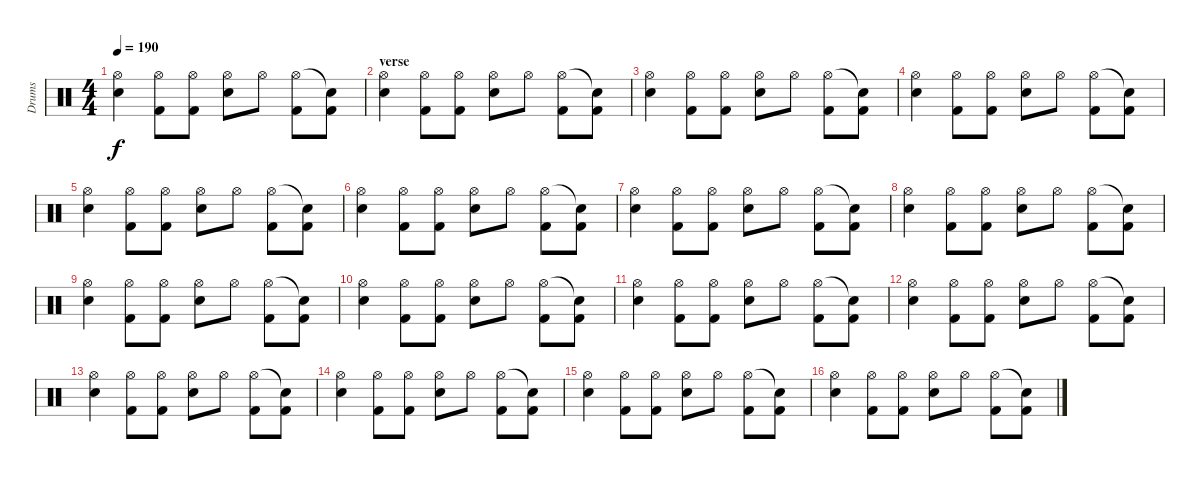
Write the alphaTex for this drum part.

\track ("Drums" "Drums") {instrument percussion}
\staff {score}
\articulation defaults
\ts (4 4)
\tempo 190
\clef neutral
\ks c
("Electric Snare (hit)" "Hi-Hat (open)").4{dy f} ("Hi-Hat (open)" "Kick (hit) 2").8 ("Hi-Hat (open)" "Kick (hit) 2").8 ("Hi-Hat (open)" "Electric Snare (hit)").8 "Hi-Hat (open)".8 ("Kick (hit) 2" "Hi-Hat (open)").8 ("Kick (hit) 2" "Snare (hit)"{t}).8 |
\section ("" "verse")
("Electric Snare (hit)" "Hi-Hat (open)").4 ("Hi-Hat (open)" "Kick (hit) 2").8 ("Hi-Hat (open)" "Kick (hit) 2").8 ("Hi-Hat (open)" "Electric Snare (hit)").8 "Hi-Hat (open)".8 ("Kick (hit) 2" "Hi-Hat (open)").8 ("Kick (hit) 2" "Snare (hit)"{t}).8 |
("Electric Snare (hit)" "Hi-Hat (open)").4 ("Hi-Hat (open)" "Kick (hit) 2").8 ("Hi-Hat (open)" "Kick (hit) 2").8 ("Hi-Hat (open)" "Electric Snare (hit)").8 "Hi-Hat (open)".8 ("Kick (hit) 2" "Hi-Hat (open)").8 ("Kick (hit) 2" "Snare (hit)"{t}).8 |
("Electric Snare (hit)" "Hi-Hat (open)").4 ("Hi-Hat (open)" "Kick (hit) 2").8 ("Hi-Hat (open)" "Kick (hit) 2").8 ("Hi-Hat (open)" "Electric Snare (hit)").8 "Hi-Hat (open)".8 ("Kick (hit) 2" "Hi-Hat (open)").8 ("Kick (hit) 2" "Snare (hit)"{t}).8 |
("Electric Snare (hit)" "Hi-Hat (open)").4 ("Hi-Hat (open)" "Kick (hit) 2").8 ("Hi-Hat (open)" "Kick (hit) 2").8 ("Hi-Hat (open)" "Electric Snare (hit)").8 "Hi-Hat (open)".8 ("Kick (hit) 2" "Hi-Hat (open)").8 ("Kick (hit) 2" "Snare (hit)"{t}).8 |
("Electric Snare (hit)" "Hi-Hat (open)").4 ("Hi-Hat (open)" "Kick (hit) 2").8 ("Hi-Hat (open)" "Kick (hit) 2").8 ("Hi-Hat (open)" "Electric Snare (hit)").8 "Hi-Hat (open)".8 ("Kick (hit) 2" "Hi-Hat (open)").8 ("Kick (hit) 2" "Snare (hit)"{t}).8 |
("Electric Snare (hit)" "Hi-Hat (open)").4 ("Hi-Hat (open)" "Kick (hit) 2").8 ("Hi-Hat (open)" "Kick (hit) 2").8 ("Hi-Hat (open)" "Electric Snare (hit)").8 "Hi-Hat (open)".8 ("Kick (hit) 2" "Hi-Hat (open)").8 ("Kick (hit) 2" "Snare (hit)"{t}).8 |
("Electric Snare (hit)" "Hi-Hat (open)").4 ("Hi-Hat (open)" "Kick (hit) 2").8 ("Hi-Hat (open)" "Kick (hit) 2").8 ("Hi-Hat (open)" "Electric Snare (hit)").8 "Hi-Hat (open)".8 ("Kick (hit) 2" "Hi-Hat (open)").8 ("Kick (hit) 2" "Snare (hit)"{t}).8 |
("Electric Snare (hit)" "Hi-Hat (open)").4 ("Hi-Hat (open)" "Kick (hit) 2").8 ("Hi-Hat (open)" "Kick (hit) 2").8 ("Hi-Hat (open)" "Electric Snare (hit)").8 "Hi-Hat (open)".8 ("Kick (hit) 2" "Hi-Hat (open)").8 ("Kick (hit) 2" "Snare (hit)"{t}).8 |
("Electric Snare (hit)" "Hi-Hat (open)").4 ("Hi-Hat (open)" "Kick (hit) 2").8 ("Hi-Hat (open)" "Kick (hit) 2").8 ("Hi-Hat (open)" "Electric Snare (hit)").8 "Hi-Hat (open)".8 ("Kick (hit) 2" "Hi-Hat (open)").8 ("Kick (hit) 2" "Snare (hit)"{t}).8 |
("Electric Snare (hit)" "Hi-Hat (open)").4 ("Hi-Hat (open)" "Kick (hit) 2").8 ("Hi-Hat (open)" "Kick (hit) 2").8 ("Hi-Hat (open)" "Electric Snare (hit)").8 "Hi-Hat (open)".8 ("Kick (hit) 2" "Hi-Hat (open)").8 ("Kick (hit) 2" "Snare (hit)"{t}).8 |
("Electric Snare (hit)" "Hi-Hat (open)").4 ("Hi-Hat (open)" "Kick (hit) 2").8 ("Hi-Hat (open)" "Kick (hit) 2").8 ("Hi-Hat (open)" "Electric Snare (hit)").8 "Hi-Hat (open)".8 ("Kick (hit) 2" "Hi-Hat (open)").8 ("Kick (hit) 2" "Snare (hit)"{t}).8 |
("Electric Snare (hit)" "Hi-Hat (open)").4 ("Hi-Hat (open)" "Kick (hit) 2").8 ("Hi-Hat (open)" "Kick (hit) 2").8 ("Hi-Hat (open)" "Electric Snare (hit)").8 "Hi-Hat (open)".8 ("Kick (hit) 2" "Hi-Hat (open)").8 ("Kick (hit) 2" "Snare (hit)"{t}).8 |
("Electric Snare (hit)" "Hi-Hat (open)").4 ("Hi-Hat (open)" "Kick (hit) 2").8 ("Hi-Hat (open)" "Kick (hit) 2").8 ("Hi-Hat (open)" "Electric Snare (hit)").8 "Hi-Hat (open)".8 ("Kick (hit) 2" "Hi-Hat (open)").8 ("Kick (hit) 2" "Snare (hit)"{t}).8 |
("Electric Snare (hit)" "Hi-Hat (open)").4 ("Hi-Hat (open)" "Kick (hit) 2").8 ("Hi-Hat (open)" "Kick (hit) 2").8 ("Hi-Hat (open)" "Electric Snare (hit)").8 "Hi-Hat (open)".8 ("Kick (hit) 2" "Hi-Hat (open)").8 ("Kick (hit) 2" "Snare (hit)"{t}).8 |
("Electric Snare (hit)" "Hi-Hat (open)").4 ("Hi-Hat (open)" "Kick (hit) 2").8 ("Hi-Hat (open)" "Kick (hit) 2").8 ("Hi-Hat (open)" "Electric Snare (hit)").8 "Hi-Hat (open)".8 ("Kick (hit) 2" "Hi-Hat (open)").8 ("Kick (hit) 2" "Snare (hit)"{t}).8
